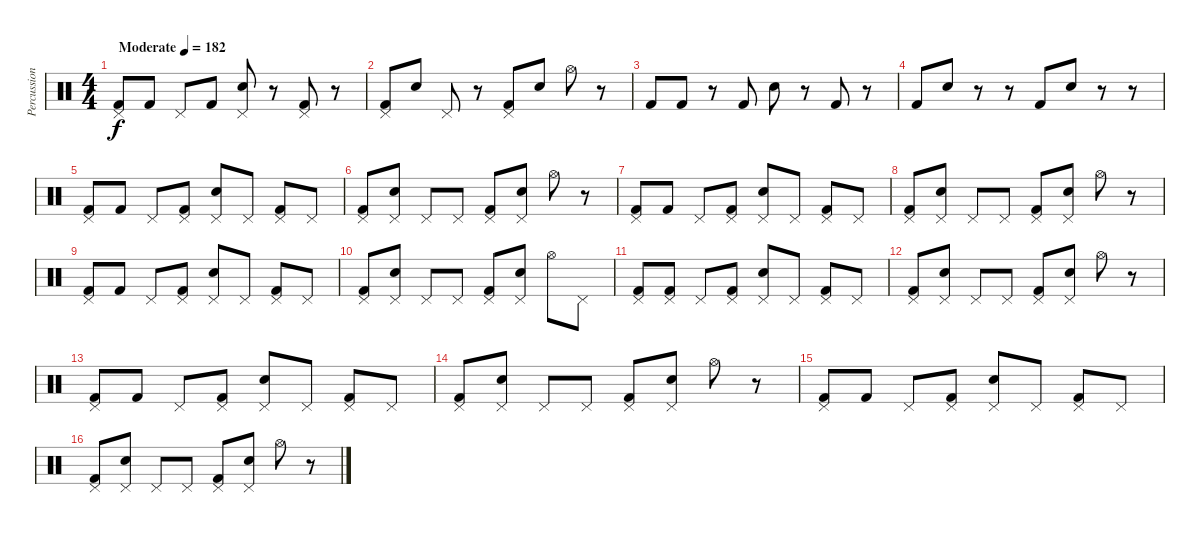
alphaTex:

\track ("Percussion" "Percussion") {instrument percussion}
\staff {score}
\articulation defaults
\ts (4 4)
\tempo (182 "Moderate")
\clef neutral
\ks c
("Pedal Hi-Hat (hit)" "Kick (hit) 2").8{dy f} "Kick (hit) 2".8 "Pedal Hi-Hat (hit)".8 "Kick (hit) 2".8 ("Pedal Hi-Hat (hit)" "Snare (hit) 2").8 r.8 ("Pedal Hi-Hat (hit)" "Kick (hit) 2").8 r.8 |
("Pedal Hi-Hat (hit)" "Kick (hit) 2").8 "Snare (hit) 2".8 "Pedal Hi-Hat (hit)".8 r.8 ("Pedal Hi-Hat (hit)" "Kick (hit) 2").8 "Snare (hit) 2".8 "Hi-Hat (open)".8 r.8 |
"Kick (hit) 2".8 "Kick (hit) 2".8 r.8 "Kick (hit) 2".8 "Snare (hit) 2".8 r.8 "Kick (hit) 2".8 r.8 |
"Kick (hit) 2".8 "Snare (hit) 2".8 r.8 r.8 "Kick (hit) 2".8 "Snare (hit) 2".8 r.8 r.8 |
("Pedal Hi-Hat (hit)" "Kick (hit) 2").8 "Kick (hit) 2".8 "Pedal Hi-Hat (hit)".8 ("Pedal Hi-Hat (hit)" "Kick (hit) 2").8 ("Pedal Hi-Hat (hit)" "Snare (hit) 2").8 "Pedal Hi-Hat (hit)".8 ("Pedal Hi-Hat (hit)" "Kick (hit) 2").8 "Pedal Hi-Hat (hit)".8 |
("Pedal Hi-Hat (hit)" "Kick (hit) 2").8 ("Pedal Hi-Hat (hit)" "Snare (hit) 2").8 "Pedal Hi-Hat (hit)".8 "Pedal Hi-Hat (hit)".8 ("Pedal Hi-Hat (hit)" "Kick (hit) 2").8 ("Pedal Hi-Hat (hit)" "Snare (hit) 2").8 "Hi-Hat (open)".8 r.8 |
("Pedal Hi-Hat (hit)" "Kick (hit) 2").8 "Kick (hit) 2".8 "Pedal Hi-Hat (hit)".8 ("Pedal Hi-Hat (hit)" "Kick (hit) 2").8 ("Pedal Hi-Hat (hit)" "Snare (hit) 2").8 "Pedal Hi-Hat (hit)".8 ("Pedal Hi-Hat (hit)" "Kick (hit) 2").8 "Pedal Hi-Hat (hit)".8 |
("Pedal Hi-Hat (hit)" "Kick (hit) 2").8 ("Pedal Hi-Hat (hit)" "Snare (hit) 2").8 "Pedal Hi-Hat (hit)".8 "Pedal Hi-Hat (hit)".8 ("Pedal Hi-Hat (hit)" "Kick (hit) 2").8 ("Pedal Hi-Hat (hit)" "Snare (hit) 2").8 "Hi-Hat (open)".8 r.8 |
("Pedal Hi-Hat (hit)" "Kick (hit) 2").8 "Kick (hit) 2".8 "Pedal Hi-Hat (hit)".8 ("Pedal Hi-Hat (hit)" "Kick (hit) 2").8 ("Pedal Hi-Hat (hit)" "Snare (hit) 2").8 "Pedal Hi-Hat (hit)".8 ("Pedal Hi-Hat (hit)" "Kick (hit) 2").8 "Pedal Hi-Hat (hit)".8 |
("Pedal Hi-Hat (hit)" "Kick (hit) 2").8 ("Pedal Hi-Hat (hit)" "Snare (hit) 2").8 "Pedal Hi-Hat (hit)".8 "Pedal Hi-Hat (hit)".8 ("Pedal Hi-Hat (hit)" "Kick (hit) 2").8 ("Pedal Hi-Hat (hit)" "Snare (hit) 2").8 "Hi-Hat (open)".8 "Pedal Hi-Hat (hit)".8 |
("Pedal Hi-Hat (hit)" "Kick (hit) 2").8 ("Pedal Hi-Hat (hit)" "Kick (hit) 2").8 "Pedal Hi-Hat (hit)".8 ("Pedal Hi-Hat (hit)" "Kick (hit) 2").8 ("Pedal Hi-Hat (hit)" "Snare (hit) 2").8 "Pedal Hi-Hat (hit)".8 ("Pedal Hi-Hat (hit)" "Kick (hit) 2").8 "Pedal Hi-Hat (hit)".8 |
("Pedal Hi-Hat (hit)" "Kick (hit) 2").8 ("Pedal Hi-Hat (hit)" "Snare (hit) 2").8 "Pedal Hi-Hat (hit)".8 "Pedal Hi-Hat (hit)".8 ("Pedal Hi-Hat (hit)" "Kick (hit) 2").8 ("Pedal Hi-Hat (hit)" "Snare (hit) 2").8 "Hi-Hat (open)".8 r.8 |
("Pedal Hi-Hat (hit)" "Kick (hit) 2").8 "Kick (hit) 2".8 "Pedal Hi-Hat (hit)".8 ("Pedal Hi-Hat (hit)" "Kick (hit) 2").8 ("Pedal Hi-Hat (hit)" "Snare (hit) 2").8 "Pedal Hi-Hat (hit)".8 ("Pedal Hi-Hat (hit)" "Kick (hit) 2").8 "Pedal Hi-Hat (hit)".8 |
("Pedal Hi-Hat (hit)" "Kick (hit) 2").8 ("Pedal Hi-Hat (hit)" "Snare (hit) 2").8 "Pedal Hi-Hat (hit)".8 "Pedal Hi-Hat (hit)".8 ("Pedal Hi-Hat (hit)" "Kick (hit) 2").8 ("Pedal Hi-Hat (hit)" "Snare (hit) 2").8 "Hi-Hat (open)".8 r.8 |
("Pedal Hi-Hat (hit)" "Kick (hit) 2").8 "Kick (hit) 2".8 "Pedal Hi-Hat (hit)".8 ("Pedal Hi-Hat (hit)" "Kick (hit) 2").8 ("Pedal Hi-Hat (hit)" "Snare (hit) 2").8 "Pedal Hi-Hat (hit)".8 ("Pedal Hi-Hat (hit)" "Kick (hit) 2").8 "Pedal Hi-Hat (hit)".8 |
("Pedal Hi-Hat (hit)" "Kick (hit) 2").8 ("Pedal Hi-Hat (hit)" "Snare (hit) 2").8 "Pedal Hi-Hat (hit)".8 "Pedal Hi-Hat (hit)".8 ("Pedal Hi-Hat (hit)" "Kick (hit) 2").8 ("Pedal Hi-Hat (hit)" "Snare (hit) 2").8 "Hi-Hat (open)".8 r.8
